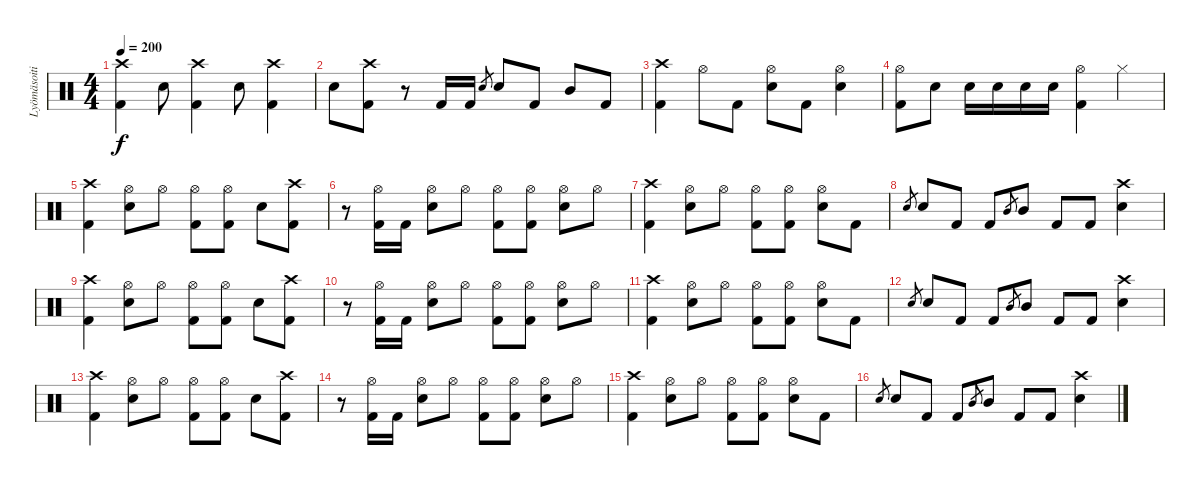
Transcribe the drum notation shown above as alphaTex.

\track ("Lyömäsoitin" "Lyömäsoiti") {instrument percussion}
\staff {score}
\articulation defaults
\ts (4 4)
\tempo 200
\clef neutral
\ks c
("Crash high (hit)" "Kick (hit) 2").4{dy f} "Snare (hit) 2".8 ("Crash high (hit)" "Kick (hit) 2").4 "Snare (hit) 2".8 ("Crash high (hit)" "Kick (hit) 2").4 |
"Snare (hit) 2".8 ("Crash high (hit)" "Kick (hit) 2").8 r.8 "Kick (hit) 2".16 "Kick (hit) 2".16 "Snare (hit) 2".8{gr} "Snare (hit) 2".8 "Kick (hit) 2".8 "Mid Tom (hit)".8 "Kick (hit) 2".8 |
("Crash high (hit)" "Kick (hit) 2").4 "Hi-Hat (open)".8 "Kick (hit) 2".8 ("Hi-Hat (open)" "Snare (hit) 2").8 "Kick (hit) 2".8 ("Hi-Hat (open)" "Snare (hit) 2").4 |
("Hi-Hat (open)" "Kick (hit) 2").8 "Snare (hit) 2".8 "Snare (hit) 2".16 "Snare (hit) 2".16 "Snare (hit) 2".16 "Snare (hit) 2".16 ("Hi-Hat (open)" "Kick (hit) 2").4 "Hi-Hat (closed)".4 |
("Crash high (hit)" "Kick (hit) 2").4 ("Hi-Hat (open)" "Snare (hit) 2").8 "Hi-Hat (open)".8 ("Hi-Hat (open)" "Kick (hit) 2").8 ("Hi-Hat (open)" "Kick (hit) 2").8 "Snare (hit) 2".8 ("Crash high (hit)" "Kick (hit) 2").8 |
r.8 ("Hi-Hat (open)" "Kick (hit) 2").16 "Kick (hit) 2".16 ("Hi-Hat (open)" "Snare (hit) 2").8 "Hi-Hat (open)".8 ("Hi-Hat (open)" "Kick (hit) 2").8 ("Hi-Hat (open)" "Kick (hit) 2").8 ("Hi-Hat (open)" "Snare (hit) 2").8 "Hi-Hat (open)".8 |
("Crash high (hit)" "Kick (hit) 2").4 ("Hi-Hat (open)" "Snare (hit) 2").8 "Hi-Hat (open)".8 ("Hi-Hat (open)" "Kick (hit) 2").8 ("Hi-Hat (open)" "Kick (hit) 2").8 ("Hi-Hat (open)" "Snare (hit) 2").8 "Kick (hit) 2".8 |
"Snare (hit) 2".8{gr} "Snare (hit) 2".8 "Kick (hit) 2".8 "Kick (hit) 2".8 "Mid Tom (hit)".8{gr} "Mid Tom (hit)".8 "Kick (hit) 2".8 "Kick (hit) 2".8 ("Crash high (hit)" "Snare (hit) 2").4 |
("Crash high (hit)" "Kick (hit) 2").4 ("Hi-Hat (open)" "Snare (hit) 2").8 "Hi-Hat (open)".8 ("Hi-Hat (open)" "Kick (hit) 2").8 ("Hi-Hat (open)" "Kick (hit) 2").8 "Snare (hit) 2".8 ("Crash high (hit)" "Kick (hit) 2").8 |
r.8 ("Hi-Hat (open)" "Kick (hit) 2").16 "Kick (hit) 2".16 ("Hi-Hat (open)" "Snare (hit) 2").8 "Hi-Hat (open)".8 ("Hi-Hat (open)" "Kick (hit) 2").8 ("Hi-Hat (open)" "Kick (hit) 2").8 ("Hi-Hat (open)" "Snare (hit) 2").8 "Hi-Hat (open)".8 |
("Crash high (hit)" "Kick (hit) 2").4 ("Hi-Hat (open)" "Snare (hit) 2").8 "Hi-Hat (open)".8 ("Hi-Hat (open)" "Kick (hit) 2").8 ("Hi-Hat (open)" "Kick (hit) 2").8 ("Hi-Hat (open)" "Snare (hit) 2").8 "Kick (hit) 2".8 |
"Snare (hit) 2".8{gr} "Snare (hit) 2".8 "Kick (hit) 2".8 "Kick (hit) 2".8 "Mid Tom (hit)".8{gr} "Mid Tom (hit)".8 "Kick (hit) 2".8 "Kick (hit) 2".8 ("Crash high (hit)" "Snare (hit) 2").4 |
("Crash high (hit)" "Kick (hit) 2").4 ("Hi-Hat (open)" "Snare (hit) 2").8 "Hi-Hat (open)".8 ("Hi-Hat (open)" "Kick (hit) 2").8 ("Hi-Hat (open)" "Kick (hit) 2").8 "Snare (hit) 2".8 ("Crash high (hit)" "Kick (hit) 2").8 |
r.8 ("Hi-Hat (open)" "Kick (hit) 2").16 "Kick (hit) 2".16 ("Hi-Hat (open)" "Snare (hit) 2").8 "Hi-Hat (open)".8 ("Hi-Hat (open)" "Kick (hit) 2").8 ("Hi-Hat (open)" "Kick (hit) 2").8 ("Hi-Hat (open)" "Snare (hit) 2").8 "Hi-Hat (open)".8 |
("Crash high (hit)" "Kick (hit) 2").4 ("Hi-Hat (open)" "Snare (hit) 2").8 "Hi-Hat (open)".8 ("Hi-Hat (open)" "Kick (hit) 2").8 ("Hi-Hat (open)" "Kick (hit) 2").8 ("Hi-Hat (open)" "Snare (hit) 2").8 "Kick (hit) 2".8 |
"Snare (hit) 2".8{gr} "Snare (hit) 2".8 "Kick (hit) 2".8 "Kick (hit) 2".8 "Mid Tom (hit)".8{gr} "Mid Tom (hit)".8 "Kick (hit) 2".8 "Kick (hit) 2".8 ("Crash high (hit)" "Snare (hit) 2").4
